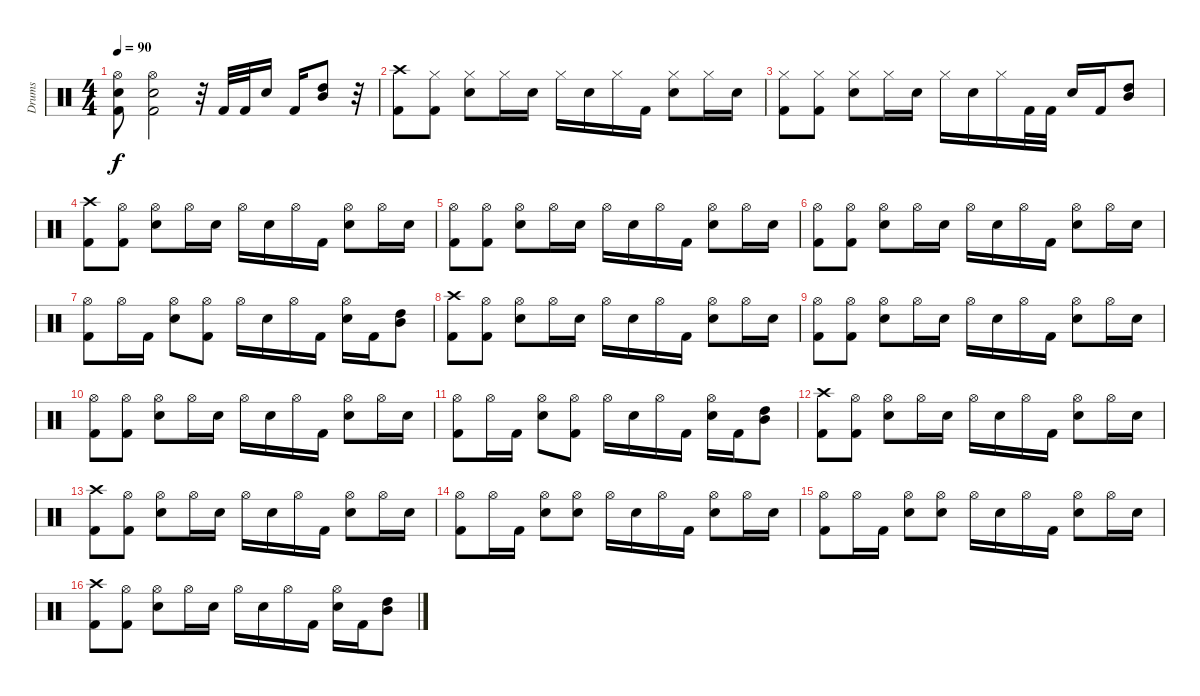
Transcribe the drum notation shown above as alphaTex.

\track ("Drums" "Drums") {instrument percussion}
\staff {score}
\articulation defaults
\ts (4 4)
\tempo 90
\clef neutral
\ks c
("Kick (hit) 2" "Snare (hit) 2" "Hi-Hat (open)").8{dy f} ("Kick (hit) 2" "Snare (hit) 2" "Hi-Hat (open)").2 r.32 "Kick (hit) 2".32 "Kick (hit) 2".32 "Snare (hit) 2".16 "Kick (hit) 2".16 ("High Tom (hit)" "Mid Tom (hit)").8 r.32 |
("Kick (hit) 2" "Crash high (hit)").8 ("Kick (hit) 2" "Hi-Hat (closed)").8 ("Snare (hit) 2" "Hi-Hat (closed)").8 "Hi-Hat (closed)".16 "Snare (hit) 2".16 "Hi-Hat (closed)".16 "Snare (hit) 2".16 "Hi-Hat (closed)".16 "Kick (hit) 2".16 ("Snare (hit) 2" "Hi-Hat (closed)").8 "Hi-Hat (closed)".16 "Snare (hit) 2".16 |
("Kick (hit) 2" "Hi-Hat (closed)").8 ("Kick (hit) 2" "Hi-Hat (closed)").8 ("Snare (hit) 2" "Hi-Hat (closed)").8 "Hi-Hat (closed)".16 "Snare (hit) 2".16 "Hi-Hat (closed)".16 "Snare (hit) 2".16 "Hi-Hat (closed)".16 "Kick (hit) 2".32 "Kick (hit) 2".32 "Snare (hit) 2".16 "Kick (hit) 2".16 ("High Tom (hit)" "Mid Tom (hit)").8 |
("Kick (hit) 2" "Crash high (hit)").8 ("Kick (hit) 2" "Hi-Hat (open)").8 ("Snare (hit) 2" "Hi-Hat (open)").8 "Hi-Hat (open)".16 "Snare (hit) 2".16 "Hi-Hat (open)".16 "Snare (hit) 2".16 "Hi-Hat (open)".16 "Kick (hit) 2".16 ("Snare (hit) 2" "Hi-Hat (open)").8 "Hi-Hat (open)".16 "Snare (hit) 2".16 |
("Kick (hit) 2" "Hi-Hat (open)").8 ("Kick (hit) 2" "Hi-Hat (open)").8 ("Snare (hit) 2" "Hi-Hat (open)").8 "Hi-Hat (open)".16 "Snare (hit) 2".16 "Hi-Hat (open)".16 "Snare (hit) 2".16 "Hi-Hat (open)".16 "Kick (hit) 2".16 ("Snare (hit) 2" "Hi-Hat (open)").8 "Hi-Hat (open)".16 "Snare (hit) 2".16 |
("Kick (hit) 2" "Hi-Hat (open)").8 ("Kick (hit) 2" "Hi-Hat (open)").8 ("Snare (hit) 2" "Hi-Hat (open)").8 "Hi-Hat (open)".16 "Snare (hit) 2".16 "Hi-Hat (open)".16 "Snare (hit) 2".16 "Hi-Hat (open)".16 "Kick (hit) 2".16 ("Snare (hit) 2" "Hi-Hat (open)").8 "Hi-Hat (open)".16 "Snare (hit) 2".16 |
("Kick (hit) 2" "Hi-Hat (open)").8 "Hi-Hat (open)".16 "Kick (hit) 2".16 ("Snare (hit) 2" "Hi-Hat (open)").8 ("Kick (hit) 2" "Hi-Hat (open)").8 "Hi-Hat (open)".16 "Snare (hit) 2".16 "Hi-Hat (open)".16 "Kick (hit) 2".16 ("Snare (hit) 2" "Hi-Hat (open)").16 "Kick (hit) 2".16 ("High Tom (hit)" "Mid Tom (hit)").8 |
("Kick (hit) 2" "Crash high (hit)").8 ("Kick (hit) 2" "Hi-Hat (open)").8 ("Snare (hit) 2" "Hi-Hat (open)").8 "Hi-Hat (open)".16 "Snare (hit) 2".16 "Hi-Hat (open)".16 "Snare (hit) 2".16 "Hi-Hat (open)".16 "Kick (hit) 2".16 ("Snare (hit) 2" "Hi-Hat (open)").8 "Hi-Hat (open)".16 "Snare (hit) 2".16 |
("Kick (hit) 2" "Hi-Hat (open)").8 ("Kick (hit) 2" "Hi-Hat (open)").8 ("Snare (hit) 2" "Hi-Hat (open)").8 "Hi-Hat (open)".16 "Snare (hit) 2".16 "Hi-Hat (open)".16 "Snare (hit) 2".16 "Hi-Hat (open)".16 "Kick (hit) 2".16 ("Snare (hit) 2" "Hi-Hat (open)").8 "Hi-Hat (open)".16 "Snare (hit) 2".16 |
("Kick (hit) 2" "Hi-Hat (open)").8 ("Kick (hit) 2" "Hi-Hat (open)").8 ("Snare (hit) 2" "Hi-Hat (open)").8 "Hi-Hat (open)".16 "Snare (hit) 2".16 "Hi-Hat (open)".16 "Snare (hit) 2".16 "Hi-Hat (open)".16 "Kick (hit) 2".16 ("Snare (hit) 2" "Hi-Hat (open)").8 "Hi-Hat (open)".16 "Snare (hit) 2".16 |
("Kick (hit) 2" "Hi-Hat (open)").8 "Hi-Hat (open)".16 "Kick (hit) 2".16 ("Snare (hit) 2" "Hi-Hat (open)").8 ("Kick (hit) 2" "Hi-Hat (open)").8 "Hi-Hat (open)".16 "Snare (hit) 2".16 "Hi-Hat (open)".16 "Kick (hit) 2".16 ("Snare (hit) 2" "Hi-Hat (open)").16 "Kick (hit) 2".16 ("High Tom (hit)" "Mid Tom (hit)").8 |
("Kick (hit) 2" "Crash high (hit)").8 ("Kick (hit) 2" "Hi-Hat (open)").8 ("Snare (hit) 2" "Hi-Hat (open)").8 "Hi-Hat (open)".16 "Snare (hit) 2".16 "Hi-Hat (open)".16 "Snare (hit) 2".16 "Hi-Hat (open)".16 "Kick (hit) 2".16 ("Snare (hit) 2" "Hi-Hat (open)").8 "Hi-Hat (open)".16 "Snare (hit) 2".16 |
("Kick (hit) 2" "Crash high (hit)").8 ("Kick (hit) 2" "Hi-Hat (open)").8 ("Snare (hit) 2" "Hi-Hat (open)").8 "Hi-Hat (open)".16 "Snare (hit) 2".16 "Hi-Hat (open)".16 "Snare (hit) 2".16 "Hi-Hat (open)".16 "Kick (hit) 2".16 ("Snare (hit) 2" "Hi-Hat (open)").8 "Hi-Hat (open)".16 "Snare (hit) 2".16 |
("Kick (hit) 2" "Hi-Hat (open)").8 "Hi-Hat (open)".16 "Kick (hit) 2".16 ("Snare (hit) 2" "Hi-Hat (open)").8 ("Snare (hit) 2" "Hi-Hat (open)").8 "Hi-Hat (open)".16 "Snare (hit) 2".16 "Hi-Hat (open)".16 "Kick (hit) 2".16 ("Snare (hit) 2" "Hi-Hat (open)").8 "Hi-Hat (open)".16 "Snare (hit) 2".16 |
("Kick (hit) 2" "Hi-Hat (open)").8 "Hi-Hat (open)".16 "Kick (hit) 2".16 ("Snare (hit) 2" "Hi-Hat (open)").8 ("Snare (hit) 2" "Hi-Hat (open)").8 "Hi-Hat (open)".16 "Snare (hit) 2".16 "Hi-Hat (open)".16 "Kick (hit) 2".16 ("Snare (hit) 2" "Hi-Hat (open)").8 "Hi-Hat (open)".16 "Snare (hit) 2".16 |
("Kick (hit) 2" "Crash high (hit)").8 ("Kick (hit) 2" "Hi-Hat (open)").8 ("Snare (hit) 2" "Hi-Hat (open)").8 "Hi-Hat (open)".16 "Snare (hit) 2".16 "Hi-Hat (open)".16 "Snare (hit) 2".16 "Hi-Hat (open)".16 "Kick (hit) 2".16 ("Snare (hit) 2" "Hi-Hat (open)").16 "Kick (hit) 2".16 ("High Tom (hit)" "Mid Tom (hit)").8
